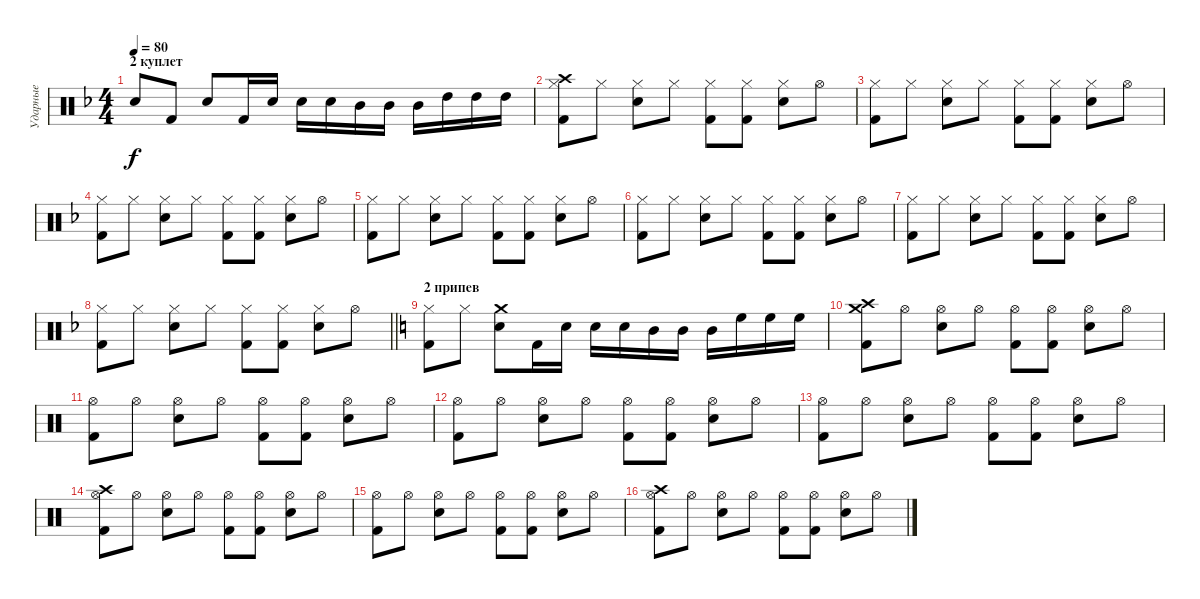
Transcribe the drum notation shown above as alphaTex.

\track ("Ударные" "Ударные") {instrument percussion}
\staff {score}
\articulation defaults
\ts (4 4)
\section ("" "2 куплет")
\tempo 80
\clef neutral
\ks f "Snare (hit) 2".8{dy f} "Kick (hit) 2".8 "Snare (hit) 2".8 "Kick (hit) 2".16 "Snare (hit) 2".16 "Snare (hit) 2".16 "Snare (hit) 2".16 "Mid Tom (hit)".16 "Mid Tom (hit)".16 "Mid Tom (hit)".16 "High Tom (hit)".16 "High Tom (hit)".16 "High Tom (hit)".16
|
("Hi-Hat (closed)" "Crash high (hit)" "Kick (hit) 2").8 "Hi-Hat (closed)".8 ("Hi-Hat (closed)" "Snare (hit) 2").8 "Hi-Hat (closed)".8 ("Hi-Hat (closed)" "Kick (hit) 2").8 ("Hi-Hat (closed)" "Kick (hit) 2").8 ("Hi-Hat (closed)" "Snare (hit) 2").8 "Hi-Hat (open)".8 |
("Hi-Hat (closed)" "Kick (hit) 2").8 "Hi-Hat (closed)".8 ("Hi-Hat (closed)" "Snare (hit) 2").8 "Hi-Hat (closed)".8 ("Hi-Hat (closed)" "Kick (hit) 2").8 ("Hi-Hat (closed)" "Kick (hit) 2").8 ("Hi-Hat (closed)" "Snare (hit) 2").8 "Hi-Hat (open)".8 |
("Hi-Hat (closed)" "Kick (hit) 2").8 "Hi-Hat (closed)".8 ("Hi-Hat (closed)" "Snare (hit) 2").8 "Hi-Hat (closed)".8 ("Hi-Hat (closed)" "Kick (hit) 2").8 ("Hi-Hat (closed)" "Kick (hit) 2").8 ("Hi-Hat (closed)" "Snare (hit) 2").8 "Hi-Hat (open)".8 |
("Hi-Hat (closed)" "Kick (hit) 2").8 "Hi-Hat (closed)".8 ("Hi-Hat (closed)" "Snare (hit) 2").8 "Hi-Hat (closed)".8 ("Hi-Hat (closed)" "Kick (hit) 2").8 ("Hi-Hat (closed)" "Kick (hit) 2").8 ("Hi-Hat (closed)" "Snare (hit) 2").8 "Hi-Hat (open)".8 |
("Hi-Hat (closed)" "Kick (hit) 2").8 "Hi-Hat (closed)".8 ("Hi-Hat (closed)" "Snare (hit) 2").8 "Hi-Hat (closed)".8 ("Hi-Hat (closed)" "Kick (hit) 2").8 ("Hi-Hat (closed)" "Kick (hit) 2").8 ("Hi-Hat (closed)" "Snare (hit) 2").8 "Hi-Hat (open)".8 |
("Hi-Hat (closed)" "Kick (hit) 2").8 "Hi-Hat (closed)".8 ("Hi-Hat (closed)" "Snare (hit) 2").8 "Hi-Hat (closed)".8 ("Hi-Hat (closed)" "Kick (hit) 2").8 ("Hi-Hat (closed)" "Kick (hit) 2").8 ("Hi-Hat (closed)" "Snare (hit) 2").8 "Hi-Hat (open)".8 |
\barLineRight lightlight
("Hi-Hat (closed)" "Kick (hit) 2").8 "Hi-Hat (closed)".8 ("Hi-Hat (closed)" "Snare (hit) 2").8 "Hi-Hat (closed)".8 ("Hi-Hat (closed)" "Kick (hit) 2").8 ("Hi-Hat (closed)" "Kick (hit) 2").8 ("Hi-Hat (closed)" "Snare (hit) 2").8 "Hi-Hat (open)".8 |
\section ("" "2 припев")
\ks c
("Hi-Hat (closed)" "Kick (hit) 2").8 "Hi-Hat (closed)".8 ("Crash medium (hit)" "Snare (hit) 2").8 "Kick (hit) 2".16 "Snare (hit) 2".16 "Snare (hit) 2".16 "Snare (hit) 2".16 "Mid Tom (hit)".16 "Mid Tom (hit)".16 "Mid Tom (hit)".16 "High Floor Tom (hit)".16 "High Floor Tom (hit)".16 "High Floor Tom (hit)".16 |
("Crash high (hit)" "Crash medium (hit)" "Kick (hit) 2").8 "Hi-Hat (open)".8 ("Hi-Hat (open)" "Snare (hit) 2").8 "Hi-Hat (open)".8 ("Hi-Hat (open)" "Kick (hit) 2").8 ("Hi-Hat (open)" "Kick (hit) 2").8 ("Hi-Hat (open)" "Snare (hit) 2").8 "Hi-Hat (open)".8 |
("Hi-Hat (open)" "Kick (hit) 2").8 "Hi-Hat (open)".8 ("Hi-Hat (open)" "Snare (hit) 2").8 "Hi-Hat (open)".8 ("Hi-Hat (open)" "Kick (hit) 2").8 ("Hi-Hat (open)" "Kick (hit) 2").8 ("Hi-Hat (open)" "Snare (hit) 2").8 "Hi-Hat (open)".8 |
("Hi-Hat (open)" "Kick (hit) 2").8 "Hi-Hat (open)".8 ("Hi-Hat (open)" "Snare (hit) 2").8 "Hi-Hat (open)".8 ("Hi-Hat (open)" "Kick (hit) 2").8 ("Hi-Hat (open)" "Kick (hit) 2").8 ("Hi-Hat (open)" "Snare (hit) 2").8 "Hi-Hat (open)".8 |
("Hi-Hat (open)" "Kick (hit) 2").8 "Hi-Hat (open)".8 ("Hi-Hat (open)" "Snare (hit) 2").8 "Hi-Hat (open)".8 ("Hi-Hat (open)" "Kick (hit) 2").8 ("Hi-Hat (open)" "Kick (hit) 2").8 ("Hi-Hat (open)" "Snare (hit) 2").8 "Hi-Hat (open)".8 |
("Hi-Hat (open)" "Crash high (hit)" "Kick (hit) 2").8 "Hi-Hat (open)".8 ("Hi-Hat (open)" "Snare (hit) 2").8 "Hi-Hat (open)".8 ("Hi-Hat (open)" "Kick (hit) 2").8 ("Hi-Hat (open)" "Kick (hit) 2").8 ("Hi-Hat (open)" "Snare (hit) 2").8 "Hi-Hat (open)".8 |
("Hi-Hat (open)" "Kick (hit) 2").8 "Hi-Hat (open)".8 ("Hi-Hat (open)" "Snare (hit) 2").8 "Hi-Hat (open)".8 ("Hi-Hat (open)" "Kick (hit) 2").8 ("Hi-Hat (open)" "Kick (hit) 2").8 ("Hi-Hat (open)" "Snare (hit) 2").8 "Hi-Hat (open)".8 |
("Hi-Hat (open)" "Crash high (hit)" "Kick (hit) 2").8 "Hi-Hat (open)".8 ("Hi-Hat (open)" "Snare (hit) 2").8 "Hi-Hat (open)".8 ("Hi-Hat (open)" "Kick (hit) 2").8 ("Hi-Hat (open)" "Kick (hit) 2").8 ("Hi-Hat (open)" "Snare (hit) 2").8 "Hi-Hat (open)".8
